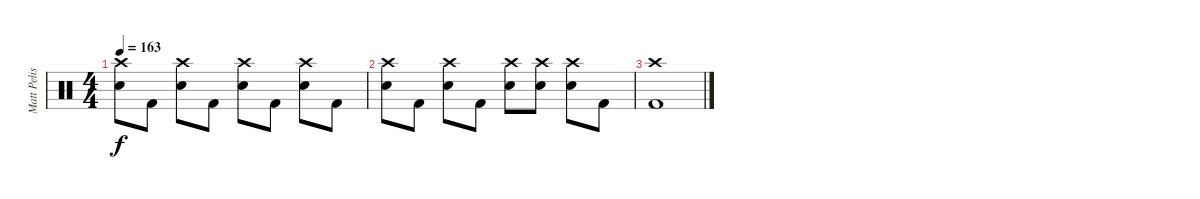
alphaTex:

\track ("Matt Pelissier (Drums)" "Matt Pelis") {instrument percussion}
\staff {score}
\articulation defaults
\ts (4 4)
\tempo 163
\clef neutral
\ks c
("Crash high (hit)" "Electric Snare (hit)").8{dy f} "Kick (hit) 2".8 ("Crash high (hit)" "Electric Snare (hit)").8 "Kick (hit) 2".8 ("Crash high (hit)" "Electric Snare (hit)").8 "Kick (hit) 2".8 ("Crash high (hit)" "Electric Snare (hit)").8 "Kick (hit) 2".8 |
("Crash high (hit)" "Electric Snare (hit)").8 "Kick (hit) 2".8 ("Crash high (hit)" "Electric Snare (hit)").8 "Kick (hit) 2".8 ("Crash high (hit)" "Electric Snare (hit)").8 ("Crash high (hit)" "Electric Snare (hit)").8 ("Crash high (hit)" "Electric Snare (hit)").8 "Kick (hit) 2".8 |
("Crash high (hit)" "Kick (hit) 2").1
